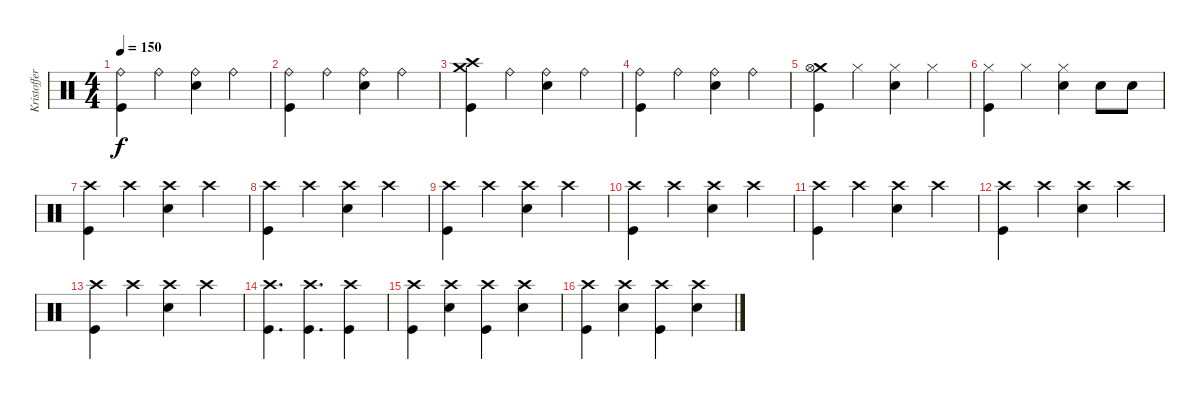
\track ("Kristoffer Söderström - Drums" "Kristoffer") {instrument percussion}
\staff {score}
\articulation defaults
\ts (4 4)
\tempo 150
\clef neutral
\ks c
("Ride (bell)" "Kick (hit)").4{dy f} "Ride (bell)".4 ("Ride (bell)" "Snare (hit) 2").4 "Ride (bell)".4 |
("Ride (bell)" "Kick (hit)").4 "Ride (bell)".4 ("Ride (bell)" "Snare (hit) 2").4 "Ride (bell)".4 |
("Crash medium (hit)" "Crash high (hit)" "Kick (hit)").4 "Ride (bell)".4 ("Ride (bell)" "Snare (hit) 2").4 "Ride (bell)".4 |
("Ride (bell)" "Kick (hit)").4 "Ride (bell)".4 ("Ride (bell)" "Snare (hit) 2").4 "Ride (bell)".4 |
("Crash medium (hit)" "Hi-Hat (open)" "Kick (hit)").4 "Hi-Hat (closed)".4 ("Hi-Hat (closed)" "Snare (hit) 2").4 "Hi-Hat (closed)".4 |
("Hi-Hat (closed)" "Kick (hit)").4 "Hi-Hat (closed)".4 ("Hi-Hat (closed)" "Snare (hit) 2").4 "Snare (hit) 2".8 "Snare (hit) 2".8 |
("Crash high (hit)" "Kick (hit)").4 "Crash high (hit)".4 ("Crash high (hit)" "Snare (hit) 2").4 "Crash high (hit)".4 |
("Crash high (hit)" "Kick (hit)").4 "Crash high (hit)".4 ("Crash high (hit)" "Snare (hit) 2").4 "Crash high (hit)".4 |
("Crash high (hit)" "Kick (hit)").4 "Crash high (hit)".4 ("Crash high (hit)" "Snare (hit) 2").4 "Crash high (hit)".4 |
("Crash high (hit)" "Kick (hit)").4 "Crash high (hit)".4 ("Crash high (hit)" "Snare (hit) 2").4 "Crash high (hit)".4 |
("Crash high (hit)" "Kick (hit)").4 "Crash high (hit)".4 ("Crash high (hit)" "Snare (hit) 2").4 "Crash high (hit)".4 |
("Crash high (hit)" "Kick (hit)").4 "Crash high (hit)".4 ("Crash high (hit)" "Snare (hit) 2").4 "Crash high (hit)".4 |
("Crash high (hit)" "Kick (hit)").4 "Crash high (hit)".4 ("Crash high (hit)" "Snare (hit) 2").4 "Crash high (hit)".4 |
("Crash high (hit)" "Kick (hit)").4{d} ("Crash high (hit)" "Kick (hit)").4{d} ("Crash high (hit)" "Kick (hit)").4 |
("Crash high (hit)" "Kick (hit)").4 ("Crash high (hit)" "Snare (hit) 2").4 ("Crash high (hit)" "Kick (hit)").4 ("Crash high (hit)" "Snare (hit) 2").4 |
("Crash high (hit)" "Kick (hit)").4 ("Crash high (hit)" "Snare (hit) 2").4 ("Crash high (hit)" "Kick (hit)").4 ("Crash high (hit)" "Snare (hit) 2").4
